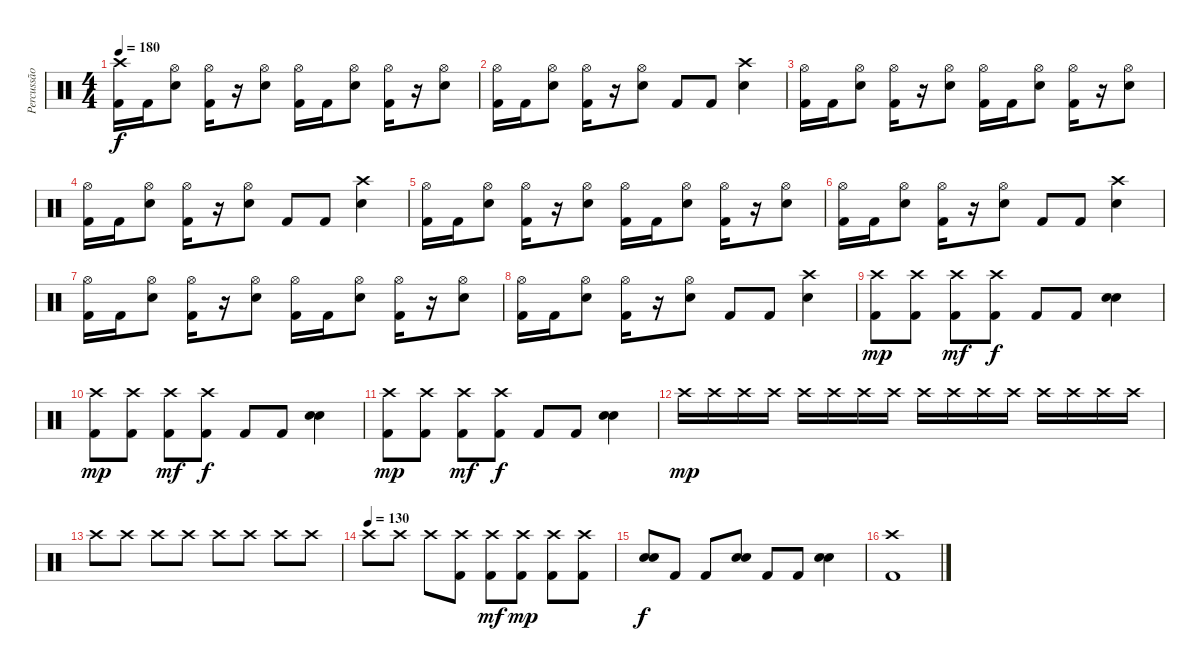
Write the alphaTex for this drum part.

\track ("Percussão" "Percussão") {instrument percussion}
\staff {score}
\articulation defaults
\ts (4 4)
\tempo 180
\clef neutral
\ks c
("Crash high (hit)" "Kick (hit) 2").16{dy f} "Kick (hit) 2".16 ("Hi-Hat (open)" "Electric Snare (hit)").8 ("Hi-Hat (open)" "Kick (hit) 2").16 r.16 ("Hi-Hat (open)" "Electric Snare (hit)").8 ("Hi-Hat (open)" "Kick (hit) 2").16 "Kick (hit) 2".16 ("Hi-Hat (open)" "Electric Snare (hit)").8 ("Hi-Hat (open)" "Kick (hit) 2").16 r.16 ("Hi-Hat (open)" "Electric Snare (hit)").8 |
("Hi-Hat (open)" "Kick (hit) 2").16 "Kick (hit) 2".16 ("Hi-Hat (open)" "Electric Snare (hit)").8 ("Hi-Hat (open)" "Kick (hit) 2").16 r.16 ("Hi-Hat (open)" "Electric Snare (hit)").8 "Kick (hit) 2".8 "Kick (hit) 2".8 ("Crash high (hit)" "Electric Snare (hit)").4 |
("Hi-Hat (open)" "Kick (hit) 2").16 "Kick (hit) 2".16 ("Hi-Hat (open)" "Electric Snare (hit)").8 ("Hi-Hat (open)" "Kick (hit) 2").16 r.16 ("Hi-Hat (open)" "Electric Snare (hit)").8 ("Hi-Hat (open)" "Kick (hit) 2").16 "Kick (hit) 2".16 ("Hi-Hat (open)" "Electric Snare (hit)").8 ("Hi-Hat (open)" "Kick (hit) 2").16 r.16 ("Hi-Hat (open)" "Electric Snare (hit)").8 |
("Hi-Hat (open)" "Kick (hit) 2").16 "Kick (hit) 2".16 ("Hi-Hat (open)" "Electric Snare (hit)").8 ("Hi-Hat (open)" "Kick (hit) 2").16 r.16 ("Hi-Hat (open)" "Electric Snare (hit)").8 "Kick (hit) 2".8 "Kick (hit) 2".8 ("Crash high (hit)" "Electric Snare (hit)").4 |
("Hi-Hat (open)" "Kick (hit) 2").16 "Kick (hit) 2".16 ("Hi-Hat (open)" "Electric Snare (hit)").8 ("Hi-Hat (open)" "Kick (hit) 2").16 r.16 ("Hi-Hat (open)" "Electric Snare (hit)").8 ("Hi-Hat (open)" "Kick (hit) 2").16 "Kick (hit) 2".16 ("Hi-Hat (open)" "Electric Snare (hit)").8 ("Hi-Hat (open)" "Kick (hit) 2").16 r.16 ("Hi-Hat (open)" "Electric Snare (hit)").8 |
("Hi-Hat (open)" "Kick (hit) 2").16 "Kick (hit) 2".16 ("Hi-Hat (open)" "Electric Snare (hit)").8 ("Hi-Hat (open)" "Kick (hit) 2").16 r.16 ("Hi-Hat (open)" "Electric Snare (hit)").8 "Kick (hit) 2".8 "Kick (hit) 2".8 ("Crash high (hit)" "Electric Snare (hit)").4 |
("Hi-Hat (open)" "Kick (hit) 2").16 "Kick (hit) 2".16 ("Hi-Hat (open)" "Electric Snare (hit)").8 ("Hi-Hat (open)" "Kick (hit) 2").16 r.16 ("Hi-Hat (open)" "Electric Snare (hit)").8 ("Hi-Hat (open)" "Kick (hit) 2").16 "Kick (hit) 2".16 ("Hi-Hat (open)" "Electric Snare (hit)").8 ("Hi-Hat (open)" "Kick (hit) 2").16 r.16 ("Hi-Hat (open)" "Electric Snare (hit)").8 |
("Hi-Hat (open)" "Kick (hit) 2").16 "Kick (hit) 2".16 ("Hi-Hat (open)" "Electric Snare (hit)").8 ("Hi-Hat (open)" "Kick (hit) 2").16 r.16 ("Hi-Hat (open)" "Electric Snare (hit)").8 "Kick (hit) 2".8 "Kick (hit) 2".8 ("Crash high (hit)" "Electric Snare (hit)").4 |
("Crash high (hit)" "Kick (hit) 2").8{dy mp} ("Crash high (hit)" "Kick (hit) 2").8 ("Crash high (hit)" "Kick (hit) 2").8{dy mf} ("Crash high (hit)" "Kick (hit) 2").8{dy f} "Kick (hit) 2".8 "Kick (hit) 2".8 ("Electric Snare (hit)" "Electric Snare (hit)").4{bd 240} |
("Crash high (hit)" "Kick (hit) 2").8{dy mp} ("Crash high (hit)" "Kick (hit) 2").8 ("Crash high (hit)" "Kick (hit) 2").8{dy mf} ("Crash high (hit)" "Kick (hit) 2").8{dy f} "Kick (hit) 2".8 "Kick (hit) 2".8 ("Electric Snare (hit)" "Electric Snare (hit)").4{bd 240} |
("Crash high (hit)" "Kick (hit) 2").8{dy mp} ("Crash high (hit)" "Kick (hit) 2").8 ("Crash high (hit)" "Kick (hit) 2").8{dy mf} ("Crash high (hit)" "Kick (hit) 2").8{dy f} "Kick (hit) 2".8 "Kick (hit) 2".8 ("Electric Snare (hit)" "Electric Snare (hit)").4{bd 240} |
"Crash high (hit)".16{dy mp} "Crash high (hit)".16 "Crash high (hit)".16 "Crash high (hit)".16 "Crash high (hit)".16 "Crash high (hit)".16 "Crash high (hit)".16 "Crash high (hit)".16 "Crash high (hit)".16 "Crash high (hit)".16 "Crash high (hit)".16 "Crash high (hit)".16 "Crash high (hit)".16 "Crash high (hit)".16 "Crash high (hit)".16 "Crash high (hit)".16 |
"Crash high (hit)".8 "Crash high (hit)".8 "Crash high (hit)".8 "Crash high (hit)".8 "Crash high (hit)".8 "Crash high (hit)".8 "Crash high (hit)".8 "Crash high (hit)".8 |
\tempo (130)
"Crash high (hit)".8 "Crash high (hit)".8 "Crash high (hit)".8 ("Crash high (hit)" "Kick (hit) 2").8 ("Crash high (hit)" "Kick (hit) 2").8{dy mf} ("Crash high (hit)" "Kick (hit) 2").8{dy mp} ("Crash high (hit)" "Kick (hit) 2").8 ("Crash high (hit)" "Kick (hit) 2").8 |
("Electric Snare (hit)" "Electric Snare (hit)").8{bd 240 dy f} "Kick (hit) 2".8 "Kick (hit) 2".8 ("Electric Snare (hit)" "Electric Snare (hit)").8{bd 240} "Kick (hit) 2".8 "Kick (hit) 2".8 ("Electric Snare (hit)" "Electric Snare (hit)").4{bd 240} |
("Crash high (hit)" "Kick (hit) 2").1
